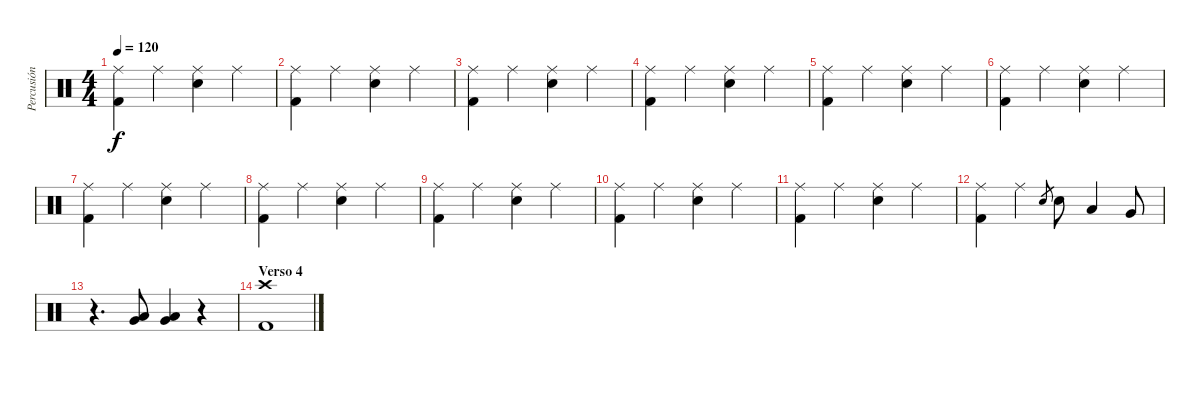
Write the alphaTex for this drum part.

\track ("Percusión" "Percusión") {instrument percussion}
\staff {score}
\articulation defaults
\ts (4 4)
\tempo 120
\clef neutral
\ks c
("Ride (middle)" "Kick (hit) 2").4{dy f} "Ride (middle)".4 ("Ride (middle)" "Snare (hit) 2").4 "Ride (middle)".4 |
("Ride (middle)" "Kick (hit) 2").4 "Ride (middle)".4 ("Ride (middle)" "Snare (hit) 2").4 "Ride (middle)".4 |
("Ride (middle)" "Kick (hit) 2").4 "Ride (middle)".4 ("Ride (middle)" "Snare (hit) 2").4 "Ride (middle)".4 |
("Ride (middle)" "Kick (hit) 2").4 "Ride (middle)".4 ("Ride (middle)" "Snare (hit) 2").4 "Ride (middle)".4 |
("Ride (middle)" "Kick (hit) 2").4 "Ride (middle)".4 ("Ride (middle)" "Snare (hit) 2").4 "Ride (middle)".4 |
("Ride (middle)" "Kick (hit) 2").4 "Ride (middle)".4 ("Ride (middle)" "Snare (hit) 2").4 "Ride (middle)".4 |
("Ride (middle)" "Kick (hit) 2").4 "Ride (middle)".4 ("Ride (middle)" "Snare (hit) 2").4 "Ride (middle)".4 |
("Ride (middle)" "Kick (hit) 2").4 "Ride (middle)".4 ("Ride (middle)" "Snare (hit) 2").4 "Ride (middle)".4 |
("Ride (middle)" "Kick (hit) 2").4 "Ride (middle)".4 ("Ride (middle)" "Snare (hit) 2").4 "Ride (middle)".4 |
("Ride (middle)" "Kick (hit) 2").4 "Ride (middle)".4 ("Ride (middle)" "Snare (hit) 2").4 "Ride (middle)".4 |
("Ride (middle)" "Kick (hit) 2").4 "Ride (middle)".4 ("Ride (middle)" "Snare (hit) 2").4 "Ride (middle)".4 |
("Ride (middle)" "Kick (hit) 2").4 "Ride (middle)".4 "Snare (hit) 2".8{gr} "Snare (hit) 2".8 "Low Tom (hit)".4 "Very Low Tom (hit)".8 |
r.4{d} ("Very Low Tom (hit)" "Low Floor Tom (hit)").8 ("Very Low Tom (hit)" "Low Floor Tom (hit)").4 r.4 |
\section ("" "Verso 4")
("Crash high (hit)" "Kick (hit) 2").1
